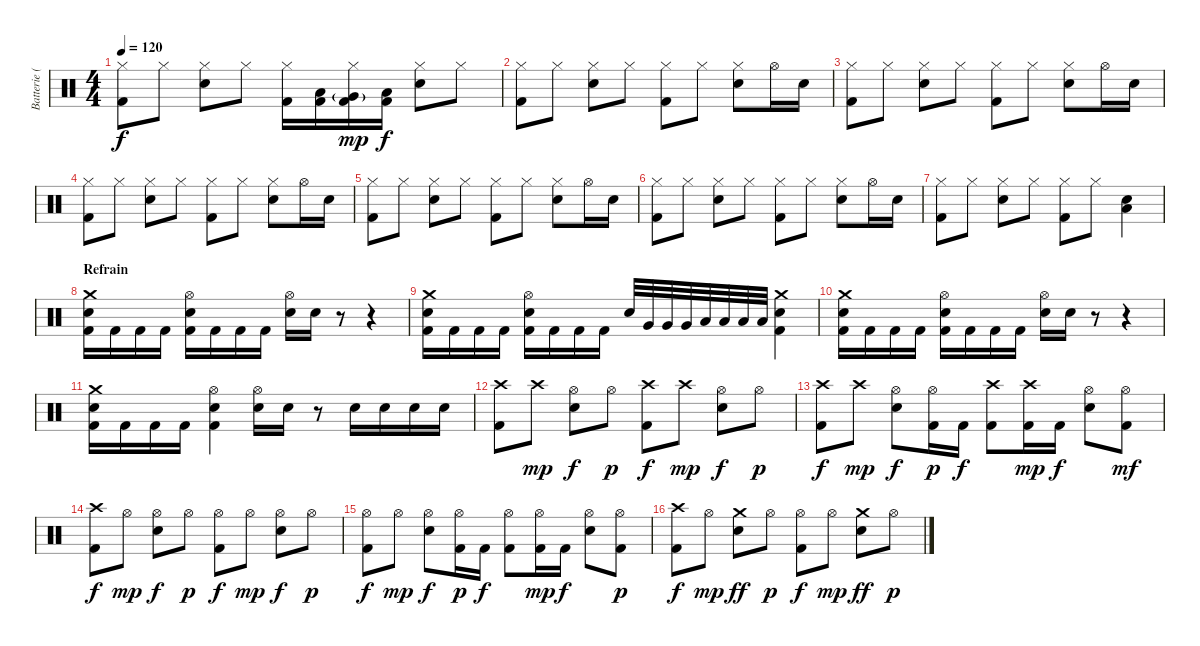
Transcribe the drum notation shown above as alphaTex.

\track ("Batterie (Racci \"Sketchy\" Shay)" "Batterie (") {instrument percussion}
\staff {score}
\articulation defaults
\ts (4 4)
\tempo 120
\clef neutral
\ks c
("Hi-Hat (closed)" "Kick (hit) 2").8{dy f} "Hi-Hat (closed)".8 ("Hi-Hat (closed)" "Electric Snare (hit)").8 "Hi-Hat (closed)".8 ("Hi-Hat (closed)" "Kick (hit) 2").16 ("Low Floor Tom (hit)" "Kick (hit) 2").16 ("Hi-Hat (closed)" "Very Low Tom (hit)"{g} "Kick (hit) 2").16{dy mp} ("Low Floor Tom (hit)" "Kick (hit) 2").16{dy f} ("Hi-Hat (closed)" "Electric Snare (hit)").8 "Hi-Hat (closed)".8 |
("Hi-Hat (closed)" "Kick (hit) 2").8 "Hi-Hat (closed)".8 ("Hi-Hat (closed)" "Electric Snare (hit)").8 "Hi-Hat (closed)".8 ("Hi-Hat (closed)" "Kick (hit) 2").8 "Hi-Hat (closed)".8 ("Hi-Hat (closed)" "Electric Snare (hit)").8 "Hi-Hat (open)".16 "Electric Snare (hit)".16 |
("Hi-Hat (closed)" "Kick (hit) 2").8 "Hi-Hat (closed)".8 ("Hi-Hat (closed)" "Electric Snare (hit)").8 "Hi-Hat (closed)".8 ("Hi-Hat (closed)" "Kick (hit) 2").8 "Hi-Hat (closed)".8 ("Hi-Hat (closed)" "Electric Snare (hit)").8 "Hi-Hat (open)".16 "Electric Snare (hit)".16 |
("Hi-Hat (closed)" "Kick (hit) 2").8 "Hi-Hat (closed)".8 ("Hi-Hat (closed)" "Electric Snare (hit)").8 "Hi-Hat (closed)".8 ("Hi-Hat (closed)" "Kick (hit) 2").8 "Hi-Hat (closed)".8 ("Hi-Hat (closed)" "Electric Snare (hit)").8 "Hi-Hat (open)".16 "Electric Snare (hit)".16 |
("Hi-Hat (closed)" "Kick (hit) 2").8 "Hi-Hat (closed)".8 ("Hi-Hat (closed)" "Electric Snare (hit)").8 "Hi-Hat (closed)".8 ("Hi-Hat (closed)" "Kick (hit) 2").8 "Hi-Hat (closed)".8 ("Hi-Hat (closed)" "Electric Snare (hit)").8 "Hi-Hat (open)".16 "Electric Snare (hit)".16 |
("Hi-Hat (closed)" "Kick (hit) 2").8 "Hi-Hat (closed)".8 ("Hi-Hat (closed)" "Electric Snare (hit)").8 "Hi-Hat (closed)".8 ("Hi-Hat (closed)" "Kick (hit) 2").8 "Hi-Hat (closed)".8 ("Hi-Hat (closed)" "Electric Snare (hit)").8 "Hi-Hat (open)".16 "Electric Snare (hit)".16 |
("Hi-Hat (closed)" "Kick (hit) 2").8 "Hi-Hat (closed)".8 ("Hi-Hat (closed)" "Electric Snare (hit)").8 "Hi-Hat (closed)".8 ("Hi-Hat (closed)" "Kick (hit) 2").8 "Hi-Hat (closed)".8 ("Electric Snare (hit)" "Low Floor Tom (hit)").4 |
\section ("" "Refrain")
("Crash medium (hit)" "Electric Snare (hit)" "Kick (hit) 2").16 "Kick (hit) 2".16 "Kick (hit) 2".16 "Kick (hit) 2".16 ("Hi-Hat (open)" "Electric Snare (hit)" "Kick (hit) 2").16 "Kick (hit) 2".16 "Kick (hit) 2".16 "Kick (hit) 2".16 ("Hi-Hat (open)" "Electric Snare (hit)").16 "Electric Snare (hit)".16 r.8 r.4 |
("Crash medium (hit)" "Electric Snare (hit)" "Kick (hit) 2").16 "Kick (hit) 2".16 "Kick (hit) 2".16 "Kick (hit) 2".16 ("Hi-Hat (open)" "Electric Snare (hit)" "Kick (hit) 2").16 "Kick (hit) 2".16 "Kick (hit) 2".16 "Kick (hit) 2".16 "Electric Snare (hit)".32 "Very Low Tom (hit)".32 "Very Low Tom (hit)".32 "Very Low Tom (hit)".32 "Low Floor Tom (hit)".32 "Low Floor Tom (hit)".32 "Low Floor Tom (hit)".32 "Low Floor Tom (hit)".32 ("Crash medium (hit)" "Electric Snare (hit)" "Kick (hit) 2").4 |
("Crash medium (hit)" "Electric Snare (hit)" "Kick (hit) 2").16 "Kick (hit) 2".16 "Kick (hit) 2".16 "Kick (hit) 2".16 ("Hi-Hat (open)" "Electric Snare (hit)" "Kick (hit) 2").16 "Kick (hit) 2".16 "Kick (hit) 2".16 "Kick (hit) 2".16 ("Hi-Hat (open)" "Electric Snare (hit)").16 "Electric Snare (hit)".16 r.8 r.4 |
("Crash medium (hit)" "Electric Snare (hit)" "Kick (hit) 2").16 "Kick (hit) 2".16 "Kick (hit) 2".16 "Kick (hit) 2".16 ("Hi-Hat (open)" "Electric Snare (hit)" "Kick (hit) 2").4 ("Hi-Hat (open)" "Electric Snare (hit)").16 "Electric Snare (hit)".16 r.8 "Electric Snare (hit)".16 "Electric Snare (hit)".16 "Electric Snare (hit)".16 "Electric Snare (hit)".16 |
("Crash high (hit)" "Kick (hit) 2").8 "Crash high (hit)".8{dy mp} ("Hi-Hat (open)" "Electric Snare (hit)").8{dy f} "Hi-Hat (open)".8{dy p} ("Crash high (hit)" "Kick (hit) 2").8{dy f} "Crash high (hit)".8{dy mp} ("Hi-Hat (open)" "Electric Snare (hit)").8{dy f} "Hi-Hat (open)".8{dy p} |
("Crash high (hit)" "Kick (hit) 2").8{dy f} "Crash high (hit)".8{dy mp} ("Hi-Hat (open)" "Electric Snare (hit)").8{dy f} ("Hi-Hat (open)" "Kick (hit) 2").16{dy p} "Kick (hit) 2".16{dy f} ("Crash high (hit)" "Kick (hit) 2").8 ("Crash high (hit)" "Kick (hit) 2").16{dy mp} "Kick (hit) 2".16{dy f} ("Hi-Hat (open)" "Electric Snare (hit)").8 ("Hi-Hat (open)" "Kick (hit) 2").8{dy mf} |
("Crash high (hit)" "Kick (hit) 2").8{dy f} "Hi-Hat (open)".8{dy mp} ("Hi-Hat (open)" "Electric Snare (hit)").8{dy f} "Hi-Hat (open)".8{dy p} ("Hi-Hat (open)" "Kick (hit) 2").8{dy f} "Hi-Hat (open)".8{dy mp} ("Hi-Hat (open)" "Electric Snare (hit)").8{dy f} "Hi-Hat (open)".8{dy p} |
("Hi-Hat (open)" "Kick (hit) 2").8{dy f} "Hi-Hat (open)".8{dy mp} ("Hi-Hat (open)" "Electric Snare (hit)").8{dy f} ("Hi-Hat (open)" "Kick (hit) 2").16{dy p} "Kick (hit) 2".16{dy f} ("Hi-Hat (open)" "Kick (hit) 2").8 ("Hi-Hat (open)" "Kick (hit) 2").16{dy mp} "Kick (hit) 2".16{dy f} ("Hi-Hat (open)" "Electric Snare (hit)").8 ("Hi-Hat (open)" "Kick (hit) 2").8{dy p} |
("Crash high (hit)" "Kick (hit) 2").8{dy f} "Hi-Hat (open)".8{dy mp} ("Crash medium (hit)" "Electric Snare (hit)").8{dy ff} "Hi-Hat (open)".8{dy p} ("Hi-Hat (open)" "Kick (hit) 2").8{dy f} "Hi-Hat (open)".8{dy mp} ("Crash medium (hit)" "Electric Snare (hit)").8{dy ff} "Hi-Hat (open)".8{dy p}
